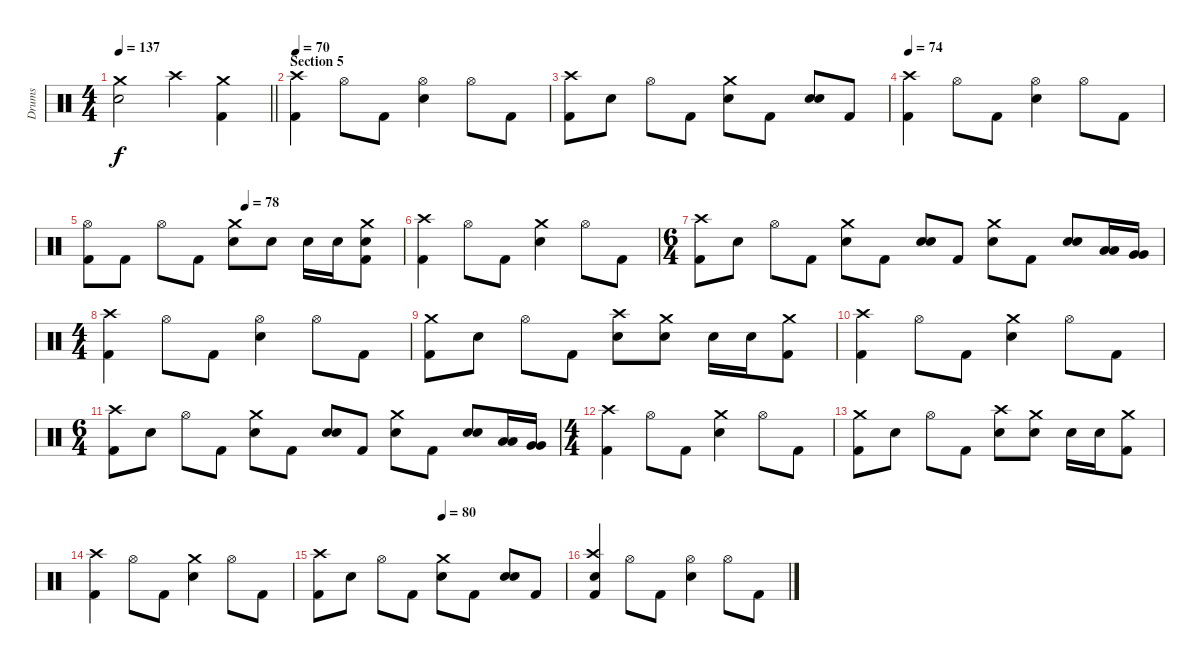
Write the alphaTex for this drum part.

\track ("Drums" "Drums") {instrument percussion}
\staff {score}
\articulation defaults
\ts (4 4)
\tempo 137
\clef neutral
\barLineRight lightlight
\ks c
("Crash medium (hit)" "Electric Snare (hit)").2{dy f} "Crash high (hit)".4 ("Crash medium (hit)" "Kick (hit) 2").4 |
\section ("" "Section 5")
\tempo 70
("Crash high (hit)" "Kick (hit) 2").4 "Hi-Hat (open)".8 "Kick (hit) 2".8 ("Hi-Hat (open)" "Electric Snare (hit)").4 "Hi-Hat (open)".8 "Kick (hit) 2".8 |
("Crash high (hit)" "Kick (hit) 2").8 "Electric Snare (hit)".8 "Hi-Hat (open)".8 "Kick (hit) 2".8 ("Crash medium (hit)" "Electric Snare (hit)").8 "Kick (hit) 2".8 ("Electric Snare (hit)" "Electric Snare (hit)").8{bu 60} "Kick (hit) 2".8 |
\tempo 74
("Crash high (hit)" "Kick (hit) 2").4 "Hi-Hat (open)".8 "Kick (hit) 2".8 ("Hi-Hat (open)" "Electric Snare (hit)").4 "Hi-Hat (open)".8 "Kick (hit) 2".8 |
\tempo (78 0.5)
("Hi-Hat (open)" "Kick (hit) 2").8 "Kick (hit) 2".8 "Hi-Hat (open)".8 "Kick (hit) 2".8 ("Crash medium (hit)" "Electric Snare (hit)").8 "Electric Snare (hit)".8 "Electric Snare (hit)".16 "Electric Snare (hit)".16 ("Crash medium (hit)" "Electric Snare (hit)" "Kick (hit) 2").8 |
("Crash high (hit)" "Kick (hit) 2").4 "Hi-Hat (open)".8 "Kick (hit) 2".8 ("Crash medium (hit)" "Electric Snare (hit)").4 "Hi-Hat (open)".8 "Kick (hit) 2".8 |
\ts (6 4)
("Crash high (hit)" "Kick (hit) 2").8 "Electric Snare (hit)".8 "Hi-Hat (open)".8 "Kick (hit) 2".8 ("Crash medium (hit)" "Electric Snare (hit)").8 "Kick (hit) 2".8 ("Electric Snare (hit)" "Electric Snare (hit)").8{bu 60} "Kick (hit) 2".8 ("Crash medium (hit)" "Electric Snare (hit)").8 "Kick (hit) 2".8 ("Electric Snare (hit)" "Electric Snare (hit)").8{bu 60} ("Low Tom (hit)" "Low Tom (hit)").16{bu 60} ("Very Low Tom (hit)" "Very Low Tom (hit)").16{bu 60} |
\ts (4 4)
("Crash high (hit)" "Kick (hit) 2").4 "Hi-Hat (open)".8 "Kick (hit) 2".8 ("Hi-Hat (open)" "Electric Snare (hit)").4 "Hi-Hat (open)".8 "Kick (hit) 2".8 |
("Crash medium (hit)" "Kick (hit) 2").8 "Electric Snare (hit)".8 "Hi-Hat (open)".8 "Kick (hit) 2".8 ("Crash high (hit)" "Electric Snare (hit)").8 ("Crash medium (hit)" "Electric Snare (hit)").8 "Electric Snare (hit)".16 "Electric Snare (hit)".16 ("Crash medium (hit)" "Kick (hit) 2").8 |
("Crash high (hit)" "Kick (hit) 2").4 "Hi-Hat (open)".8 "Kick (hit) 2".8 ("Crash medium (hit)" "Electric Snare (hit)").4 "Hi-Hat (open)".8 "Kick (hit) 2".8 |
\ts (6 4)
("Crash high (hit)" "Kick (hit) 2").8 "Electric Snare (hit)".8 "Hi-Hat (open)".8 "Kick (hit) 2".8 ("Crash medium (hit)" "Electric Snare (hit)").8 "Kick (hit) 2".8 ("Electric Snare (hit)" "Electric Snare (hit)").8{bu 60} "Kick (hit) 2".8 ("Crash medium (hit)" "Electric Snare (hit)").8 "Kick (hit) 2".8 ("Electric Snare (hit)" "Electric Snare (hit)").8{bu 60} ("Low Tom (hit)" "Low Tom (hit)").16{bu 60} ("Very Low Tom (hit)" "Very Low Tom (hit)").16{bu 60} |
\ts (4 4)
("Crash high (hit)" "Kick (hit) 2").4 "Hi-Hat (open)".8 "Kick (hit) 2".8 ("Crash medium (hit)" "Electric Snare (hit)").4 "Hi-Hat (open)".8 "Kick (hit) 2".8 |
("Crash medium (hit)" "Kick (hit) 2").8 "Electric Snare (hit)".8 "Hi-Hat (open)".8 "Kick (hit) 2".8 ("Crash high (hit)" "Electric Snare (hit)").8 ("Crash medium (hit)" "Electric Snare (hit)").8 "Electric Snare (hit)".16 "Electric Snare (hit)".16 ("Crash medium (hit)" "Kick (hit) 2").8 |
("Crash high (hit)" "Kick (hit) 2").4 "Hi-Hat (open)".8 "Kick (hit) 2".8 ("Crash medium (hit)" "Electric Snare (hit)").4 "Hi-Hat (open)".8 "Kick (hit) 2".8 |
\tempo (80 0.5)
("Crash high (hit)" "Kick (hit) 2").8 "Electric Snare (hit)".8 "Hi-Hat (open)".8 "Kick (hit) 2".8 ("Crash medium (hit)" "Electric Snare (hit)").8 "Kick (hit) 2".8 ("Electric Snare (hit)" "Electric Snare (hit)").8{bu 60} "Kick (hit) 2".8 |
("Crash high (hit)" "Electric Snare (hit)" "Kick (hit) 2").4 "Hi-Hat (open)".8 "Kick (hit) 2".8 ("Hi-Hat (open)" "Electric Snare (hit)").4 "Hi-Hat (open)".8 "Kick (hit) 2".8
